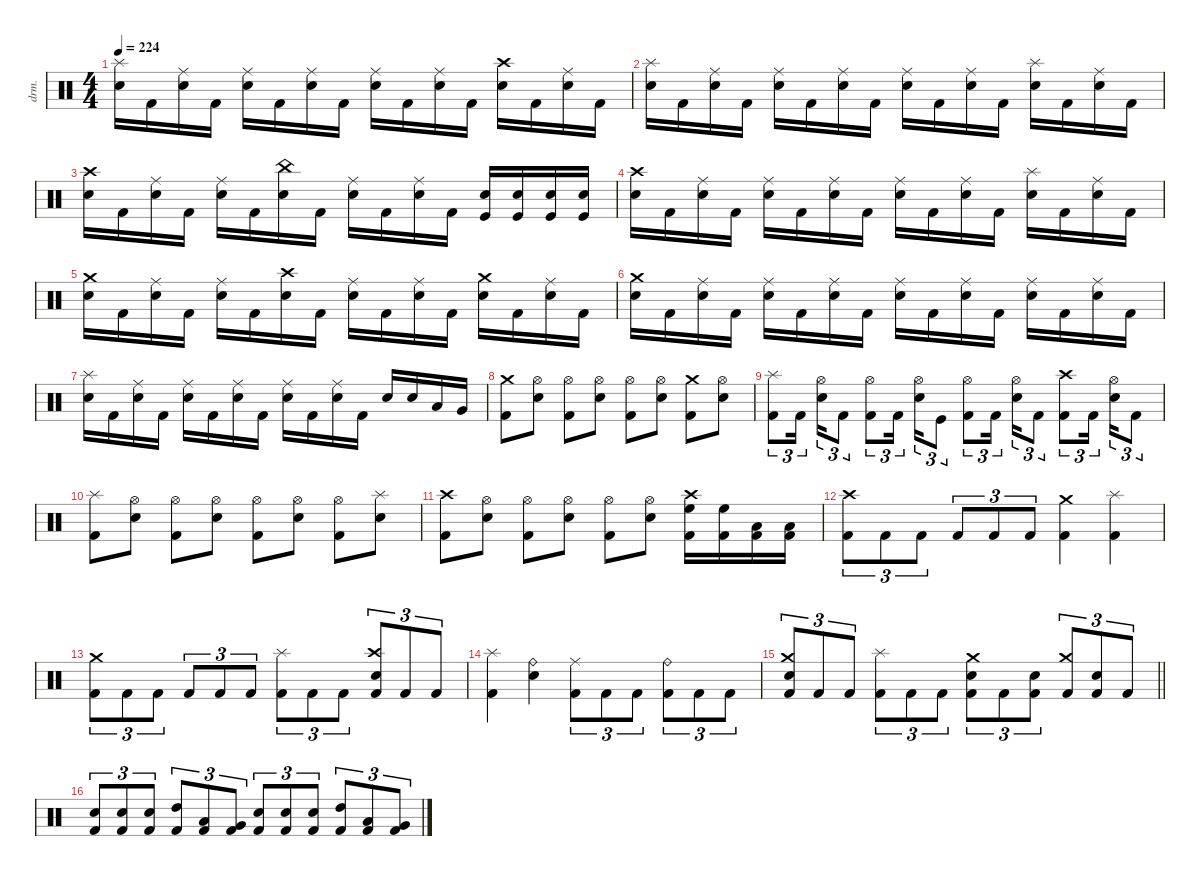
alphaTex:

\defaultSystemsLayout 4
\hideDynamics
\bracketExtendMode nobrackets
\otherSystemsTrackNameOrientation horizontal
\track ("Percussion" "drm.") {instrument percussion}
\staff {score}
\articulation defaults
\ts (4 4)
\tempo 224
\clef neutral
\ks c
("Splash (hit)" "Snare (hit) 2").16{dy f beam Down} "Kick (hit) 2".16{beam Down} ("Ride (middle)" "Snare (hit) 2").16{beam Down} "Kick (hit) 2".16{beam Down} ("Ride (middle)" "Snare (hit) 2").16{beam Down} "Kick (hit) 2".16{beam Down} ("Ride (middle)" "Snare (hit) 2").16{beam Down} "Kick (hit) 2".16{beam Down} ("Ride (middle)" "Snare (hit) 2").16{beam Down} "Kick (hit) 2".16{beam Down} ("Ride (middle)" "Snare (hit) 2").16{beam Down} "Kick (hit) 2".16{beam Down} ("Crash high (hit)" "Snare (hit) 2").16{beam Down} "Kick (hit) 2".16{beam Down} ("Ride (middle)" "Snare (hit) 2").16{beam Down} "Kick (hit) 2".16{beam Down} |
("Splash (hit)" "Snare (hit) 2").16{beam Down} "Kick (hit) 2".16{beam Down} ("Ride (middle)" "Snare (hit) 2").16{beam Down} "Kick (hit) 2".16{beam Down} ("Ride (middle)" "Snare (hit) 2").16{beam Down} "Kick (hit) 2".16{beam Down} ("Ride (middle)" "Snare (hit) 2").16{beam Down} "Kick (hit) 2".16{beam Down} ("Ride (middle)" "Snare (hit) 2").16{beam Down} "Kick (hit) 2".16{beam Down} ("Ride (middle)" "Snare (hit) 2").16{beam Down} "Kick (hit) 2".16{beam Down} ("Splash (hit)" "Snare (hit) 2").16{beam Down} "Kick (hit) 2".16{beam Down} ("Ride (middle)" "Snare (hit) 2").16{beam Down} "Kick (hit) 2".16{beam Down} |
("Crash high (hit)" "Snare (hit) 2").16{beam Down} "Kick (hit) 2".16{beam Down} ("Ride (middle)" "Snare (hit) 2").16{beam Down} "Kick (hit) 2".16{beam Down} ("Ride (middle)" "Snare (hit) 2").16{beam Down} "Kick (hit) 2".16{beam Down} ("China (hit)" "Snare (hit) 2").16{beam Down} "Kick (hit) 2".16{beam Down} ("Ride (middle)" "Snare (hit) 2").16{beam Down} "Kick (hit) 2".16{beam Down} ("Ride (middle)" "Snare (hit) 2").16{beam Down} "Kick (hit) 2".16{beam Down} ("Snare (hit) 2" "Kick (hit)").16{beam Up} ("Snare (hit) 2" "Kick (hit)").16{beam Up} ("Snare (hit) 2" "Kick (hit)").16{beam Up} ("Snare (hit) 2" "Kick (hit)").16{beam Up} |
("Crash high (hit)" "Snare (hit) 2").16{beam Down} "Kick (hit) 2".16{beam Down} ("Ride (middle)" "Snare (hit) 2").16{beam Down} "Kick (hit) 2".16{beam Down} ("Ride (middle)" "Snare (hit) 2").16{beam Down} "Kick (hit) 2".16{beam Down} ("Ride (middle)" "Snare (hit) 2").16{beam Down} "Kick (hit) 2".16{beam Down} ("Ride (middle)" "Snare (hit) 2").16{beam Down} "Kick (hit) 2".16{beam Down} ("Ride (middle)" "Snare (hit) 2").16{beam Down} "Kick (hit) 2".16{beam Down} ("Splash (hit)" "Snare (hit) 2").16{beam Down} "Kick (hit) 2".16{beam Down} ("Ride (middle)" "Snare (hit) 2").16{beam Down} "Kick (hit) 2".16{beam Down} |
("Crash medium (hit)" "Snare (hit) 2").16{beam Down} "Kick (hit) 2".16{beam Down} ("Ride (middle)" "Snare (hit) 2").16{beam Down} "Kick (hit) 2".16{beam Down} ("Ride (middle)" "Snare (hit) 2").16{beam Down} "Kick (hit) 2".16{beam Down} ("Crash high (hit)" "Snare (hit) 2").16{beam Down} "Kick (hit) 2".16{beam Down} ("Ride (middle)" "Snare (hit) 2").16{beam Down} "Kick (hit) 2".16{beam Down} ("Ride (middle)" "Snare (hit) 2").16{beam Down} "Kick (hit) 2".16{beam Down} ("Crash medium (hit)" "Snare (hit) 2").16{beam Down} "Kick (hit) 2".16{beam Down} ("Ride (middle)" "Snare (hit) 2").16{beam Down} "Kick (hit) 2".16{beam Down} |
("Crash medium (hit)" "Snare (hit) 2").16{beam Down} "Kick (hit) 2".16{beam Down} ("Ride (middle)" "Snare (hit) 2").16{beam Down} "Kick (hit) 2".16{beam Down} ("Ride (middle)" "Snare (hit) 2").16{beam Down} "Kick (hit) 2".16{beam Down} ("Ride (middle)" "Snare (hit) 2").16{beam Down} "Kick (hit) 2".16{beam Down} ("Ride (middle)" "Snare (hit) 2").16{beam Down} "Kick (hit) 2".16{beam Down} ("Ride (middle)" "Snare (hit) 2").16{beam Down} "Kick (hit) 2".16{beam Down} ("Ride (middle)" "Snare (hit) 2").16{beam Down} "Kick (hit) 2".16{beam Down} ("Ride (middle)" "Snare (hit) 2").16{beam Down} "Kick (hit) 2".16{beam Down} |
("Splash (hit)" "Snare (hit) 2").16{beam Down} "Kick (hit) 2".16{beam Down} ("Ride (middle)" "Snare (hit) 2").16{beam Down} "Kick (hit) 2".16{beam Down} ("Ride (middle)" "Snare (hit) 2").16{beam Down} "Kick (hit) 2".16{beam Down} ("Ride (middle)" "Snare (hit) 2").16{beam Down} "Kick (hit) 2".16{beam Down} ("Ride (middle)" "Snare (hit) 2").16{beam Down} "Kick (hit) 2".16{beam Down} ("Ride (middle)" "Snare (hit) 2").16{beam Down} "Kick (hit) 2".16{beam Down} "Snare (hit) 2".16{beam Up} "Snare (hit) 2".16{beam Up} "Low Tom (hit)".16{beam Up} "Very Low Tom (hit)".16{beam Up} |
("Crash medium (hit)" "Kick (hit) 2").8{beam Down} ("Hi-Hat (open)" "Snare (hit) 2").8{beam Down} ("Hi-Hat (open)" "Kick (hit) 2").8{beam Down} ("Hi-Hat (open)" "Snare (hit) 2").8{beam Down} ("Hi-Hat (open)" "Kick (hit) 2").8{beam Down} ("Hi-Hat (open)" "Snare (hit) 2").8{beam Down} ("Crash medium (hit)" "Kick (hit) 2").8{beam Down} ("Hi-Hat (open)" "Snare (hit) 2").8{beam Down} |
("Splash (hit)" "Kick (hit) 2").8{tu (3 2) beam Down} "Kick (hit) 2".16{tu (3 2) beam Down} ("Hi-Hat (open)" "Snare (hit) 2").16{tu (3 2) beam Down} "Kick (hit) 2".8{tu (3 2) beam Down} ("Hi-Hat (open)" "Kick (hit) 2").8{tu (3 2) beam Down} "Kick (hit) 2".16{tu (3 2) beam Down} ("Hi-Hat (open)" "Snare (hit) 2").16{tu (3 2) beam Down} "Kick (hit)".8{tu (3 2) beam Down} ("Hi-Hat (open)" "Kick (hit) 2").8{tu (3 2) beam Down} "Kick (hit) 2".16{tu (3 2) beam Down} ("Hi-Hat (open)" "Snare (hit) 2").16{tu (3 2) beam Down} "Kick (hit) 2".8{tu (3 2) beam Down} ("Crash high (hit)" "Kick (hit) 2").8{tu (3 2) beam Down} "Kick (hit) 2".16{tu (3 2) beam Down} ("Hi-Hat (open)" "Snare (hit) 2").16{tu (3 2) beam Down} "Kick (hit) 2".8{tu (3 2) beam Down} |
("Splash (hit)" "Kick (hit) 2").8{beam Down} ("Hi-Hat (open)" "Snare (hit) 2").8{beam Down} ("Hi-Hat (open)" "Kick (hit) 2").8{beam Down} ("Hi-Hat (open)" "Snare (hit) 2").8{beam Down} ("Hi-Hat (open)" "Kick (hit) 2").8{beam Down} ("Hi-Hat (open)" "Snare (hit) 2").8{beam Down} ("Hi-Hat (open)" "Kick (hit) 2").8{beam Down} ("Splash (hit)" "Snare (hit) 2").8{beam Down} |
("Crash high (hit)" "Kick (hit) 2").8{beam Down} ("Hi-Hat (open)" "Snare (hit) 2").8{beam Down} ("Hi-Hat (open)" "Kick (hit) 2").8{beam Down} ("Hi-Hat (open)" "Snare (hit) 2").8{beam Down} ("Hi-Hat (open)" "Kick (hit) 2").8{beam Down} ("Hi-Hat (open)" "Snare (hit) 2").8{beam Down} ("Crash high (hit)" "High Floor Tom (hit)" "Kick (hit) 2").16{beam Down} ("High Floor Tom (hit)" "Kick (hit) 2").16{beam Down} ("Low Tom (hit)" "Kick (hit) 2").16{beam Down} ("Low Tom (hit)" "Kick (hit) 2").16{beam Down} |
("Crash high (hit)" "Kick (hit) 2").8{tu (3 2) beam Down} "Kick (hit) 2".8{tu (3 2) beam Down} "Kick (hit) 2".8{tu (3 2) beam Down} "Kick (hit) 2".8{tu (3 2) beam Up} "Kick (hit) 2".8{tu (3 2) beam Up} "Kick (hit) 2".8{tu (3 2) beam Up} ("Crash medium (hit)" "Kick (hit) 2").4{beam Down} ("Splash (hit)" "Kick (hit) 2").4{beam Down} |
("Crash medium (hit)" "Kick (hit) 2").8{tu (3 2) beam Down} "Kick (hit) 2".8{tu (3 2) beam Down} "Kick (hit) 2".8{tu (3 2) beam Down} "Kick (hit) 2".8{tu (3 2) beam Up} "Kick (hit) 2".8{tu (3 2) beam Up} "Kick (hit) 2".8{tu (3 2) beam Up} ("Splash (hit)" "Kick (hit) 2").8{tu (3 2) beam Down} "Kick (hit) 2".8{tu (3 2) beam Down} "Kick (hit) 2".8{tu (3 2) beam Down} ("Crash high (hit)" "Snare (hit) 2" "Kick (hit) 2").8{tu (3 2) beam Up} "Kick (hit) 2".8{tu (3 2) beam Up} "Kick (hit) 2".8{tu (3 2) beam Up} |
("Splash (hit)" "Kick (hit) 2").4{beam Down} ("Ride (bell)" "Snare (hit) 2").4{beam Down} ("Ride (middle)" "Kick (hit) 2").8{tu (3 2) beam Down} "Kick (hit) 2".8{tu (3 2) beam Down} "Kick (hit) 2".8{tu (3 2) beam Down} ("Ride (bell)" "Kick (hit) 2").8{tu (3 2) beam Down} "Kick (hit) 2".8{tu (3 2) beam Down} "Kick (hit) 2".8{tu (3 2) beam Down} |
\barLineRight lightlight
("Crash medium (hit)" "Snare (hit) 2" "Kick (hit) 2").8{tu (3 2) beam Up} "Kick (hit) 2".8{tu (3 2) beam Up} "Kick (hit) 2".8{tu (3 2) beam Up} ("Splash (hit)" "Kick (hit) 2").8{tu (3 2) beam Down} "Kick (hit) 2".8{tu (3 2) beam Down} "Kick (hit) 2".8{tu (3 2) beam Down} ("Crash medium (hit)" "Snare (hit) 2" "Kick (hit) 2").8{tu (3 2) beam Down} "Kick (hit) 2".8{tu (3 2) beam Down} ("Snare (hit) 2" "Kick (hit) 2").8{tu (3 2) beam Down} ("Crash medium (hit)" "Kick (hit) 2").8{tu (3 2) beam Up} ("Snare (hit) 2" "Kick (hit) 2").8{tu (3 2) beam Up} "Kick (hit) 2".8{tu (3 2) beam Up} |
("Snare (hit) 2" "Kick (hit) 2").8{tu (3 2) beam Up} ("Snare (hit) 2" "Kick (hit) 2").8{tu (3 2) beam Up} ("Snare (hit) 2" "Kick (hit) 2").8{tu (3 2) beam Up} ("High Tom (hit)" "Kick (hit) 2").8{tu (3 2) beam Up} ("Low Tom (hit)" "Kick (hit) 2").8{tu (3 2) beam Up} ("Very Low Tom (hit)" "Kick (hit) 2").8{tu (3 2) beam Up} ("Snare (hit) 2" "Kick (hit) 2").8{tu (3 2) beam Up} ("Snare (hit) 2" "Kick (hit) 2").8{tu (3 2) beam Up} ("Snare (hit) 2" "Kick (hit) 2").8{tu (3 2) beam Up} ("High Tom (hit)" "Kick (hit) 2").8{tu (3 2) beam Up} ("Low Tom (hit)" "Kick (hit) 2").8{tu (3 2) beam Up} ("Very Low Tom (hit)" "Kick (hit) 2").8{tu (3 2) beam Up}
